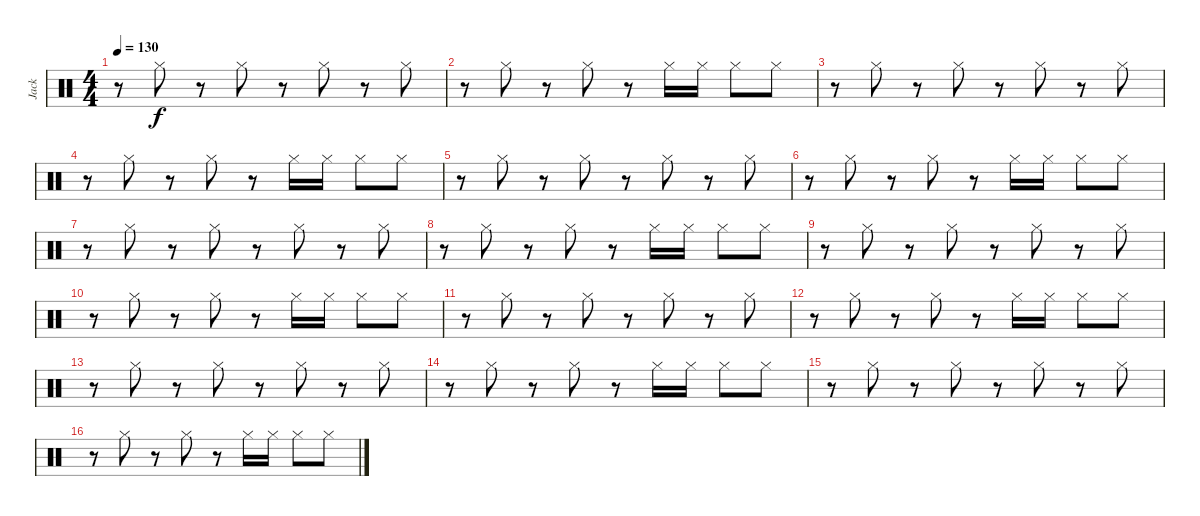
\track ("Jack" "Jack") {instrument percussion}
\staff {score}
\articulation defaults
\ts (4 4)
\tempo 130
\clef neutral
\ks c
r.8{dy f} "Hi-Hat (closed)".8 r.8 "Hi-Hat (closed)".8 r.8 "Hi-Hat (closed)".8 r.8 "Hi-Hat (closed)".8 |
r.8 "Hi-Hat (closed)".8 r.8 "Hi-Hat (closed)".8 r.8 "Hi-Hat (closed)".16 "Hi-Hat (closed)".16 "Hi-Hat (closed)".8 "Hi-Hat (closed)".8 |
r.8 "Hi-Hat (closed)".8 r.8 "Hi-Hat (closed)".8 r.8 "Hi-Hat (closed)".8 r.8 "Hi-Hat (closed)".8 |
r.8 "Hi-Hat (closed)".8 r.8 "Hi-Hat (closed)".8 r.8 "Hi-Hat (closed)".16 "Hi-Hat (closed)".16 "Hi-Hat (closed)".8 "Hi-Hat (closed)".8 |
r.8 "Hi-Hat (closed)".8 r.8 "Hi-Hat (closed)".8 r.8 "Hi-Hat (closed)".8 r.8 "Hi-Hat (closed)".8 |
r.8 "Hi-Hat (closed)".8 r.8 "Hi-Hat (closed)".8 r.8 "Hi-Hat (closed)".16 "Hi-Hat (closed)".16 "Hi-Hat (closed)".8 "Hi-Hat (closed)".8 |
r.8 "Hi-Hat (closed)".8 r.8 "Hi-Hat (closed)".8 r.8 "Hi-Hat (closed)".8 r.8 "Hi-Hat (closed)".8 |
r.8 "Hi-Hat (closed)".8 r.8 "Hi-Hat (closed)".8 r.8 "Hi-Hat (closed)".16 "Hi-Hat (closed)".16 "Hi-Hat (closed)".8 "Hi-Hat (closed)".8 |
r.8 "Hi-Hat (closed)".8 r.8 "Hi-Hat (closed)".8 r.8 "Hi-Hat (closed)".8 r.8 "Hi-Hat (closed)".8 |
r.8 "Hi-Hat (closed)".8 r.8 "Hi-Hat (closed)".8 r.8 "Hi-Hat (closed)".16 "Hi-Hat (closed)".16 "Hi-Hat (closed)".8 "Hi-Hat (closed)".8 |
r.8 "Hi-Hat (closed)".8 r.8 "Hi-Hat (closed)".8 r.8 "Hi-Hat (closed)".8 r.8 "Hi-Hat (closed)".8 |
r.8 "Hi-Hat (closed)".8 r.8 "Hi-Hat (closed)".8 r.8 "Hi-Hat (closed)".16 "Hi-Hat (closed)".16 "Hi-Hat (closed)".8 "Hi-Hat (closed)".8 |
r.8 "Hi-Hat (closed)".8 r.8 "Hi-Hat (closed)".8 r.8 "Hi-Hat (closed)".8 r.8 "Hi-Hat (closed)".8 |
r.8 "Hi-Hat (closed)".8 r.8 "Hi-Hat (closed)".8 r.8 "Hi-Hat (closed)".16 "Hi-Hat (closed)".16 "Hi-Hat (closed)".8 "Hi-Hat (closed)".8 |
r.8 "Hi-Hat (closed)".8 r.8 "Hi-Hat (closed)".8 r.8 "Hi-Hat (closed)".8 r.8 "Hi-Hat (closed)".8 |
r.8 "Hi-Hat (closed)".8 r.8 "Hi-Hat (closed)".8 r.8 "Hi-Hat (closed)".16 "Hi-Hat (closed)".16 "Hi-Hat (closed)".8 "Hi-Hat (closed)".8
